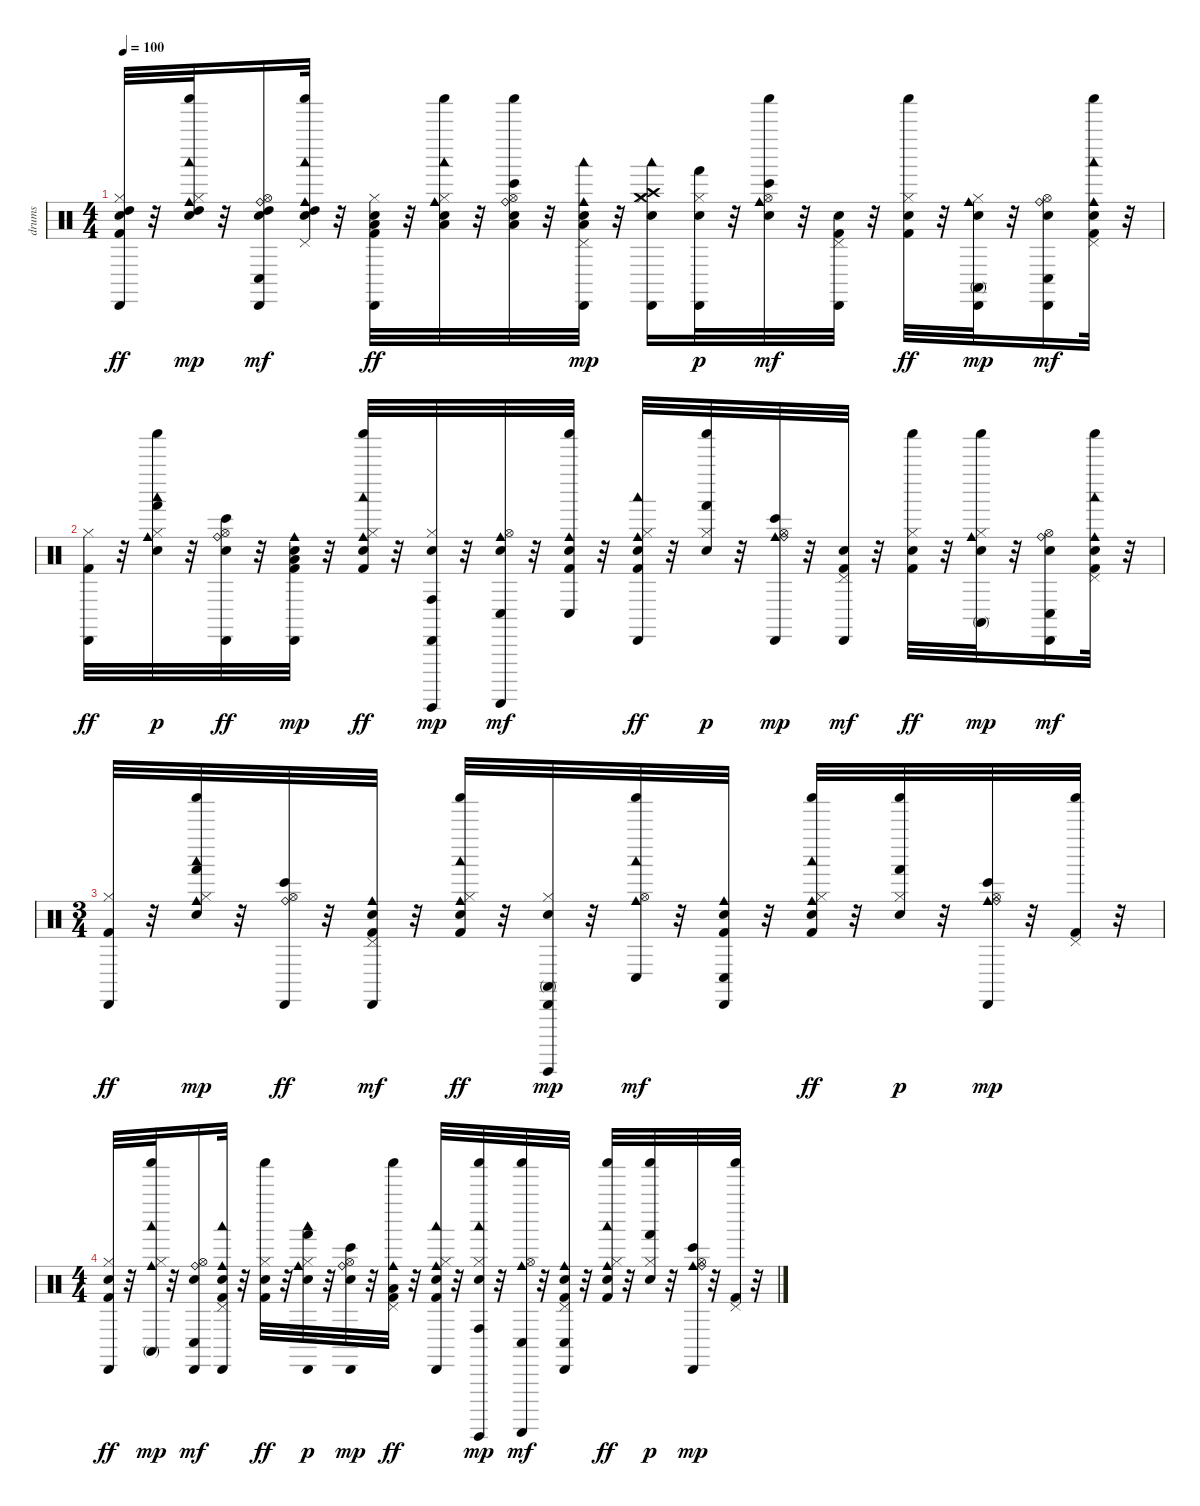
\track ("drums" "drums") {instrument percussion}
\staff {score}
\articulation defaults
\ts (4 4)
\tempo 100
\clef neutral
\ks c
("High Tom (hit)" "Snare (hit) 2" "Hi-Hat (closed)" "Cabasa (hit)" "Kick (hit) 2").32{dy ff} r.32 ("High Tom (hit)" "Snare (hit) 2" "Hi-Hat (closed)" "Woodblock low (hit)" "Shaker (hit)" "Cowbell medium (hit)").32{dy mp} r.32 ("High Tom (hit)" "Snare (hit) 2" "Hi-Hat (open)" "Cabasa (hit)" "Ride (bell)" "Conga low (hit)").16{dy mf} ("High Tom (hit)" "Snare (hit) 2" "Pedal Hi-Hat (hit)" "Woodblock low (hit)" "Shaker (hit)" "Cowbell medium (hit)").32 r.32 ("Low Tom (hit)" "Snare (hit) 2" "Hi-Hat (closed)" "Cabasa (hit)" "Kick (hit) 2").32{dy ff} r.32 ("Low Tom (hit)" "Snare (hit) 2" "Hi-Hat (closed)" "Woodblock low (hit)" "Shaker (hit)" "Cowbell medium (hit)").32 r.32 ("Low Tom (hit)" "Snare (hit) 2" "Hi-Hat (open)" "Shaker (hit)" "Ride (bell)" "Bongo High (hit)").32 r.32 ("Low Tom (hit)" "Snare (hit) 2" "Pedal Hi-Hat (hit)" "Woodblock low (hit)" "Cabasa (hit)" "Cowbell medium (hit)").32{dy mp} r.32 ("Crash high (hit)" "Crash medium (hit)" "Snare (hit) 2" "Hi-Hat (closed)" "Woodblock low (hit)" "Cabasa (hit)").16 ("Snare (hit) 2" "Hi-Hat (closed)" "Cabasa (hit)" "Hand (hit)").32{dy p} r.32 ("Snare (hit) 2" "Hi-Hat (open)" "Shaker (hit)" "Cowbell medium (hit)" "Bongo High (hit)").32{dy mf} r.32 ("Snare (hit) 2" "Pedal Hi-Hat (hit)" "Cabasa (hit)" "Kick (hit) 2").32 r.32 ("Snare (hit) 2" "Hi-Hat (closed)" "Shaker (hit)" "Kick (hit) 2").32{dy ff} r.32 ("Snare (hit) 2" "Hi-Hat (closed)" "Cabasa (hit)" "Cowbell medium (hit)" "Conga high (mute)").32{dy mp} r.32 ("Snare (hit) 2" "Hi-Hat (open)" "Cabasa (hit)" "Ride (bell)" "Conga low (hit)").16{dy mf} ("Snare (hit) 2" "Pedal Hi-Hat (hit)" "Woodblock low (hit)" "Shaker (hit)" "Cowbell medium (hit)" "Kick (hit) 2").32 r.32 |
("Hi-Hat (closed)" "Cabasa (hit)" "Kick (hit) 2").32{dy ff} r.32 ("Snare (hit) 2" "Hi-Hat (closed)" "Woodblock low (hit)" "Shaker (hit)" "Cowbell medium (hit)" "Hand (hit)").32{dy p} r.32 ("Snare (hit) 2" "Hi-Hat (open)" "Cabasa (hit)" "Ride (bell)" "Bongo High (hit)").32{dy ff} r.32 ("Snare (hit) 2" "Cabasa (hit)" "Cowbell medium (hit)" "Kick (hit) 2" "Low Tom (hit)").32{dy mp} r.32 ("Snare (hit) 2" "Hi-Hat (closed)" "Woodblock low (hit)" "Shaker (hit)" "Cowbell medium (hit)" "Kick (hit) 2").32{dy ff} r.32 ("Snare (hit) 2" "Hi-Hat (closed)" "Cabasa (hit)" "Guiro (hit)" "Conga high (hit)").32{dy mp} r.32 ("Snare (hit) 2" "Hi-Hat (open)" "Guiro (scrap-return)" "Cowbell medium (hit)" "Conga low (hit)").32{dy mf} r.32 ("Snare (hit) 2" "Shaker (hit)" "Cowbell medium (hit)" "Kick (hit) 2" "Conga low (hit)").32 r.32 ("Snare (hit) 2" "Hi-Hat (closed)" "Woodblock low (hit)" "Cabasa (hit)" "Cowbell medium (hit)" "Kick (hit) 2").32{dy ff} r.32 ("Snare (hit) 2" "Hi-Hat (closed)" "Shaker (hit)" "Hand (hit)").32{dy p} r.32 ("Hi-Hat (open)" "Cabasa (hit)" "Cowbell medium (hit)" "Ride (bell)" "Bongo High (hit)").32{dy mp} r.32 ("Snare (hit) 2" "Pedal Hi-Hat (hit)" "Cabasa (hit)" "Kick (hit) 2").32{dy mf} r.32 ("Snare (hit) 2" "Hi-Hat (closed)" "Shaker (hit)" "Kick (hit) 2").32{dy ff} r.32 ("Snare (hit) 2" "Hi-Hat (closed)" "Shaker (hit)" "Cowbell medium (hit)" "Conga high (mute)").32{dy mp} r.32 ("Snare (hit) 2" "Hi-Hat (open)" "Cabasa (hit)" "Ride (bell)" "Conga low (hit)").16{dy mf} ("Snare (hit) 2" "Pedal Hi-Hat (hit)" "Woodblock low (hit)" "Shaker (hit)" "Cowbell medium (hit)" "Kick (hit) 2").32 r.32 |
\ts (3 4)
("Hi-Hat (closed)" "Cabasa (hit)" "Kick (hit) 2").32{dy ff} r.32 ("Snare (hit) 2" "Hi-Hat (closed)" "Woodblock low (hit)" "Shaker (hit)" "Cowbell medium (hit)" "Hand (hit)").32{dy mp} r.32 ("Hi-Hat (open)" "Cabasa (hit)" "Ride (bell)" "Bongo High (hit)").32{dy ff} r.32 ("Snare (hit) 2" "Pedal Hi-Hat (hit)" "Cabasa (hit)" "Cowbell medium (hit)" "Kick (hit) 2").32{dy mf} r.32 ("Snare (hit) 2" "Hi-Hat (closed)" "Woodblock low (hit)" "Shaker (hit)" "Cowbell medium (hit)" "Kick (hit) 2").32{dy ff} r.32 ("Snare (hit) 2" "Hi-Hat (closed)" "Cabasa (hit)" "Guiro (hit)" "Conga high (mute)").32{dy mp} r.32 ("Hi-Hat (open)" "Woodblock low (hit)" "Shaker (hit)" "Cowbell medium (hit)" "Conga low (hit)").32{dy mf} r.32 ("Snare (hit) 2" "Cabasa (hit)" "Cowbell medium (hit)" "Kick (hit) 2" "Conga low (hit)").32 r.32 ("Snare (hit) 2" "Hi-Hat (closed)" "Woodblock low (hit)" "Shaker (hit)" "Cowbell medium (hit)" "Kick (hit) 2").32{dy ff} r.32 ("Snare (hit) 2" "Hi-Hat (closed)" "Shaker (hit)" "Hand (hit)").32{dy p} r.32 ("Hi-Hat (open)" "Cabasa (hit)" "Cowbell medium (hit)" "Ride (bell)" "Bongo High (hit)").32{dy mp} r.32 ("Pedal Hi-Hat (hit)" "Shaker (hit)" "Kick (hit) 2").32 r.32 |
\ts (4 4)
("Snare (hit) 2" "Hi-Hat (closed)" "Cabasa (hit)" "Kick (hit) 2").32{dy ff} r.32 ("Hi-Hat (closed)" "Woodblock low (hit)" "Shaker (hit)" "Cowbell medium (hit)" "Conga high (mute)").32{dy mp} r.32 ("Snare (hit) 2" "Hi-Hat (open)" "Cabasa (hit)" "Ride (bell)" "Conga low (hit)").16{dy mf} ("Snare (hit) 2" "Pedal Hi-Hat (hit)" "Woodblock low (hit)" "Cabasa (hit)" "Cowbell medium (hit)" "Kick (hit) 2").32 r.32 ("Snare (hit) 2" "Hi-Hat (closed)" "Shaker (hit)" "Kick (hit) 2").32{dy ff} r.32 ("Snare (hit) 2" "Hi-Hat (closed)" "Woodblock low (hit)" "Cabasa (hit)" "Cowbell medium (hit)" "Hand (hit)").32{dy p} r.32 ("Snare (hit) 2" "Hi-Hat (open)" "Cabasa (hit)" "Ride (bell)" "Bongo High (hit)").32{dy mp} r.32 ("Pedal Hi-Hat (hit)" "Shaker (hit)" "Cowbell medium (hit)" "Kick (hit) 2" "Low Tom (hit)").32{dy ff} r.32 ("Snare (hit) 2" "Hi-Hat (closed)" "Woodblock low (hit)" "Cabasa (hit)" "Cowbell medium (hit)" "Kick (hit) 2").32 r.32 ("Snare (hit) 2" "Hi-Hat (closed)" "Woodblock low (hit)" "Shaker (hit)" "Guiro (hit)" "Conga high (hit)").32{dy mp} r.32 ("Hi-Hat (open)" "Shaker (hit)" "Guiro (scrap-return)" "Cowbell medium (hit)" "Conga low (hit)").32{dy mf} r.32 ("Snare (hit) 2" "Pedal Hi-Hat (hit)" "Cabasa (hit)" "Cowbell medium (hit)" "Kick (hit) 2" "Conga low (hit)").32 r.32 ("Snare (hit) 2" "Hi-Hat (closed)" "Woodblock low (hit)" "Shaker (hit)" "Cowbell medium (hit)" "Kick (hit) 2").32{dy ff} r.32 ("Snare (hit) 2" "Hi-Hat (closed)" "Shaker (hit)" "Hand (hit)").32{dy p} r.32 ("Hi-Hat (open)" "Cabasa (hit)" "Cowbell medium (hit)" "Ride (bell)" "Bongo High (hit)").32{dy mp} r.32 ("Pedal Hi-Hat (hit)" "Shaker (hit)" "Kick (hit) 2").32 r.32
